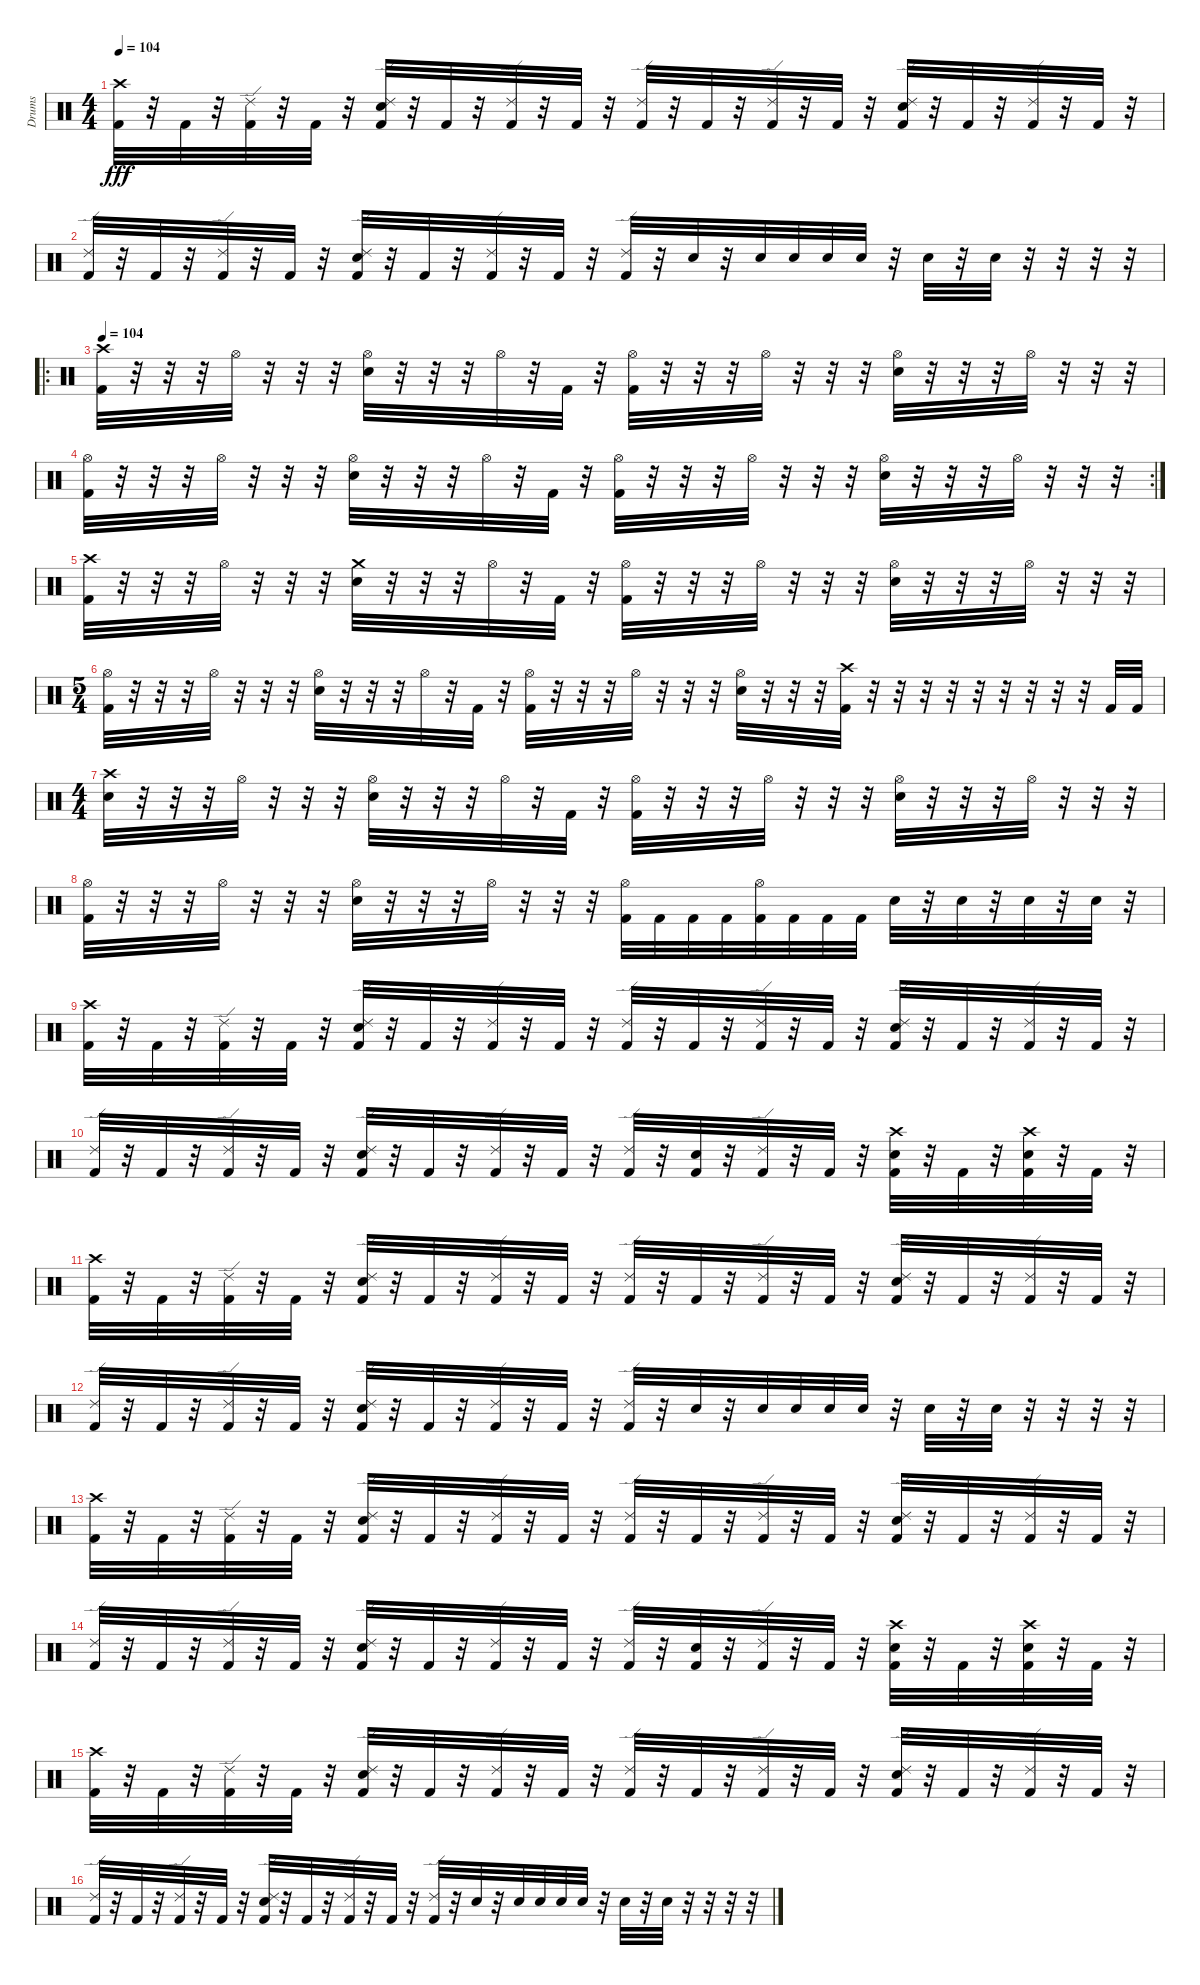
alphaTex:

\track ("Drums" "Drums") {instrument percussion}
\staff {score}
\articulation defaults
\ts (4 4)
\tempo 104
\clef neutral
\ks c
("Crash high (hit)" "Kick (hit) 2").32{dy fff} r.32 "Kick (hit) 2".32 r.32 ("Ride (edge) 2" "Kick (hit) 2").32 r.32 "Kick (hit) 2".32 r.32 ("Ride (edge) 2" "Snare (hit) 2" "Kick (hit) 2").32 r.32 "Kick (hit) 2".32 r.32 ("Ride (edge) 2" "Kick (hit) 2").32 r.32 "Kick (hit) 2".32 r.32 ("Ride (edge) 2" "Kick (hit) 2").32 r.32 "Kick (hit) 2".32 r.32 ("Ride (edge) 2" "Kick (hit) 2").32 r.32 "Kick (hit) 2".32 r.32 ("Ride (edge) 2" "Snare (hit) 2" "Kick (hit) 2").32 r.32 "Kick (hit) 2".32 r.32 ("Ride (edge) 2" "Kick (hit) 2").32 r.32 "Kick (hit) 2".32 r.32 |
("Ride (edge) 2" "Kick (hit) 2").32 r.32 "Kick (hit) 2".32 r.32 ("Ride (edge) 2" "Kick (hit) 2").32 r.32 "Kick (hit) 2".32 r.32 ("Ride (edge) 2" "Snare (hit) 2" "Kick (hit) 2").32 r.32 "Kick (hit) 2".32 r.32 ("Ride (edge) 2" "Kick (hit) 2").32 r.32 "Kick (hit) 2".32 r.32 ("Ride (edge) 2" "Kick (hit) 2").32 r.32 "Snare (hit) 2".32 r.32 "Snare (hit) 2".32 "Snare (hit) 2".32 "Snare (hit) 2".32 "Snare (hit) 2".32 r.32 "Snare (hit) 2".32 r.32 "Snare (hit) 2".32 r.32 r.32 r.32 r.32 |
\ro
\tempo 104
("Crash high (hit)" "Kick (hit) 2").32 r.32 r.32 r.32 "Hi-Hat (open)".32 r.32 r.32 r.32 ("Hi-Hat (open)" "Snare (hit) 2").32 r.32 r.32 r.32 "Hi-Hat (open)".32 r.32 "Kick (hit) 2".32 r.32 ("Hi-Hat (open)" "Kick (hit) 2").32 r.32 r.32 r.32 "Hi-Hat (open)".32 r.32 r.32 r.32 ("Hi-Hat (open)" "Snare (hit) 2").32 r.32 r.32 r.32 "Hi-Hat (open)".32 r.32 r.32 r.32 |
\rc 2
("Hi-Hat (open)" "Kick (hit) 2").32 r.32 r.32 r.32 "Hi-Hat (open)".32 r.32 r.32 r.32 ("Hi-Hat (open)" "Snare (hit) 2").32 r.32 r.32 r.32 "Hi-Hat (open)".32 r.32 "Kick (hit) 2".32 r.32 ("Hi-Hat (open)" "Kick (hit) 2").32 r.32 r.32 r.32 "Hi-Hat (open)".32 r.32 r.32 r.32 ("Hi-Hat (open)" "Snare (hit) 2").32 r.32 r.32 r.32 "Hi-Hat (open)".32 r.32 r.32 r.32 |
("Crash high (hit)" "Kick (hit) 2").32 r.32 r.32 r.32 "Hi-Hat (open)".32 r.32 r.32 r.32 ("Crash medium (hit)" "Snare (hit) 2").32 r.32 r.32 r.32 "Hi-Hat (open)".32 r.32 "Kick (hit) 2".32 r.32 ("Hi-Hat (open)" "Kick (hit) 2").32 r.32 r.32 r.32 "Hi-Hat (open)".32 r.32 r.32 r.32 ("Hi-Hat (open)" "Snare (hit) 2").32 r.32 r.32 r.32 "Hi-Hat (open)".32 r.32 r.32 r.32 |
\ts (5 4)
("Hi-Hat (open)" "Kick (hit) 2").32 r.32 r.32 r.32 "Hi-Hat (open)".32 r.32 r.32 r.32 ("Hi-Hat (open)" "Snare (hit) 2").32 r.32 r.32 r.32 "Hi-Hat (open)".32 r.32 "Kick (hit) 2".32 r.32 ("Hi-Hat (open)" "Kick (hit) 2").32 r.32 r.32 r.32 "Hi-Hat (open)".32 r.32 r.32 r.32 ("Hi-Hat (open)" "Snare (hit) 2").32 r.32 r.32 r.32 ("Crash high (hit)" "Kick (hit) 2").32 r.32 r.32 r.32 r.32 r.32 r.32 r.32 r.32 r.32 "Kick (hit) 2".32 "Kick (hit) 2".32 |
\ts (4 4)
("Crash high (hit)" "Snare (hit) 2").32 r.32 r.32 r.32 "Hi-Hat (open)".32 r.32 r.32 r.32 ("Hi-Hat (open)" "Snare (hit) 2").32 r.32 r.32 r.32 "Hi-Hat (open)".32 r.32 "Kick (hit) 2".32 r.32 ("Hi-Hat (open)" "Kick (hit) 2").32 r.32 r.32 r.32 "Hi-Hat (open)".32 r.32 r.32 r.32 ("Hi-Hat (open)" "Snare (hit) 2").32 r.32 r.32 r.32 "Hi-Hat (open)".32 r.32 r.32 r.32 |
("Hi-Hat (open)" "Kick (hit) 2").32 r.32 r.32 r.32 "Hi-Hat (open)".32 r.32 r.32 r.32 ("Hi-Hat (open)" "Snare (hit) 2").32 r.32 r.32 r.32 "Hi-Hat (open)".32 r.32 r.32 r.32 ("Hi-Hat (open)" "Kick (hit) 2").32 "Kick (hit) 2".32 "Kick (hit) 2".32 "Kick (hit) 2".32 ("Hi-Hat (open)" "Kick (hit) 2").32 "Kick (hit) 2".32 "Kick (hit) 2".32 "Kick (hit) 2".32 "Snare (hit) 2".32 r.32 "Snare (hit) 2".32 r.32 "Snare (hit) 2".32 r.32 "Snare (hit) 2".32 r.32 |
("Crash high (hit)" "Kick (hit) 2").32 r.32 "Kick (hit) 2".32 r.32 ("Ride (edge) 2" "Kick (hit) 2").32 r.32 "Kick (hit) 2".32 r.32 ("Ride (edge) 2" "Snare (hit) 2" "Kick (hit) 2").32 r.32 "Kick (hit) 2".32 r.32 ("Ride (edge) 2" "Kick (hit) 2").32 r.32 "Kick (hit) 2".32 r.32 ("Ride (edge) 2" "Kick (hit) 2").32 r.32 "Kick (hit) 2".32 r.32 ("Ride (edge) 2" "Kick (hit) 2").32 r.32 "Kick (hit) 2".32 r.32 ("Ride (edge) 2" "Snare (hit) 2" "Kick (hit) 2").32 r.32 "Kick (hit) 2".32 r.32 ("Ride (edge) 2" "Kick (hit) 2").32 r.32 "Kick (hit) 2".32 r.32 |
("Ride (edge) 2" "Kick (hit) 2").32 r.32 "Kick (hit) 2".32 r.32 ("Ride (edge) 2" "Kick (hit) 2").32 r.32 "Kick (hit) 2".32 r.32 ("Ride (edge) 2" "Snare (hit) 2" "Kick (hit) 2").32 r.32 "Kick (hit) 2".32 r.32 ("Ride (edge) 2" "Kick (hit) 2").32 r.32 "Kick (hit) 2".32 r.32 ("Ride (edge) 2" "Kick (hit) 2").32 r.32 ("Snare (hit) 2" "Kick (hit) 2").32 r.32 ("Ride (edge) 2" "Kick (hit) 2").32 r.32 "Kick (hit) 2".32 r.32 ("Crash high (hit)" "Snare (hit) 2" "Kick (hit) 2").32 r.32 "Kick (hit) 2".32 r.32 ("Crash high (hit)" "Snare (hit) 2" "Kick (hit) 2").32 r.32 "Kick (hit) 2".32 r.32 |
("Crash high (hit)" "Kick (hit) 2").32 r.32 "Kick (hit) 2".32 r.32 ("Ride (edge) 2" "Kick (hit) 2").32 r.32 "Kick (hit) 2".32 r.32 ("Ride (edge) 2" "Snare (hit) 2" "Kick (hit) 2").32 r.32 "Kick (hit) 2".32 r.32 ("Ride (edge) 2" "Kick (hit) 2").32 r.32 "Kick (hit) 2".32 r.32 ("Ride (edge) 2" "Kick (hit) 2").32 r.32 "Kick (hit) 2".32 r.32 ("Ride (edge) 2" "Kick (hit) 2").32 r.32 "Kick (hit) 2".32 r.32 ("Ride (edge) 2" "Snare (hit) 2" "Kick (hit) 2").32 r.32 "Kick (hit) 2".32 r.32 ("Ride (edge) 2" "Kick (hit) 2").32 r.32 "Kick (hit) 2".32 r.32 |
("Ride (edge) 2" "Kick (hit) 2").32 r.32 "Kick (hit) 2".32 r.32 ("Ride (edge) 2" "Kick (hit) 2").32 r.32 "Kick (hit) 2".32 r.32 ("Ride (edge) 2" "Snare (hit) 2" "Kick (hit) 2").32 r.32 "Kick (hit) 2".32 r.32 ("Ride (edge) 2" "Kick (hit) 2").32 r.32 "Kick (hit) 2".32 r.32 ("Ride (edge) 2" "Kick (hit) 2").32 r.32 "Snare (hit) 2".32 r.32 "Snare (hit) 2".32 "Snare (hit) 2".32 "Snare (hit) 2".32 "Snare (hit) 2".32 r.32 "Snare (hit) 2".32 r.32 "Snare (hit) 2".32 r.32 r.32 r.32 r.32 |
("Crash high (hit)" "Kick (hit) 2").32 r.32 "Kick (hit) 2".32 r.32 ("Ride (edge) 2" "Kick (hit) 2").32 r.32 "Kick (hit) 2".32 r.32 ("Ride (edge) 2" "Snare (hit) 2" "Kick (hit) 2").32 r.32 "Kick (hit) 2".32 r.32 ("Ride (edge) 2" "Kick (hit) 2").32 r.32 "Kick (hit) 2".32 r.32 ("Ride (edge) 2" "Kick (hit) 2").32 r.32 "Kick (hit) 2".32 r.32 ("Ride (edge) 2" "Kick (hit) 2").32 r.32 "Kick (hit) 2".32 r.32 ("Ride (edge) 2" "Snare (hit) 2" "Kick (hit) 2").32 r.32 "Kick (hit) 2".32 r.32 ("Ride (edge) 2" "Kick (hit) 2").32 r.32 "Kick (hit) 2".32 r.32 |
("Ride (edge) 2" "Kick (hit) 2").32 r.32 "Kick (hit) 2".32 r.32 ("Ride (edge) 2" "Kick (hit) 2").32 r.32 "Kick (hit) 2".32 r.32 ("Ride (edge) 2" "Snare (hit) 2" "Kick (hit) 2").32 r.32 "Kick (hit) 2".32 r.32 ("Ride (edge) 2" "Kick (hit) 2").32 r.32 "Kick (hit) 2".32 r.32 ("Ride (edge) 2" "Kick (hit) 2").32 r.32 ("Snare (hit) 2" "Kick (hit) 2").32 r.32 ("Ride (edge) 2" "Kick (hit) 2").32 r.32 "Kick (hit) 2".32 r.32 ("Crash high (hit)" "Snare (hit) 2" "Kick (hit) 2").32 r.32 "Kick (hit) 2".32 r.32 ("Crash high (hit)" "Snare (hit) 2" "Kick (hit) 2").32 r.32 "Kick (hit) 2".32 r.32 |
("Crash high (hit)" "Kick (hit) 2").32 r.32 "Kick (hit) 2".32 r.32 ("Ride (edge) 2" "Kick (hit) 2").32 r.32 "Kick (hit) 2".32 r.32 ("Ride (edge) 2" "Snare (hit) 2" "Kick (hit) 2").32 r.32 "Kick (hit) 2".32 r.32 ("Ride (edge) 2" "Kick (hit) 2").32 r.32 "Kick (hit) 2".32 r.32 ("Ride (edge) 2" "Kick (hit) 2").32 r.32 "Kick (hit) 2".32 r.32 ("Ride (edge) 2" "Kick (hit) 2").32 r.32 "Kick (hit) 2".32 r.32 ("Ride (edge) 2" "Snare (hit) 2" "Kick (hit) 2").32 r.32 "Kick (hit) 2".32 r.32 ("Ride (edge) 2" "Kick (hit) 2").32 r.32 "Kick (hit) 2".32 r.32 |
("Ride (edge) 2" "Kick (hit) 2").32 r.32 "Kick (hit) 2".32 r.32 ("Ride (edge) 2" "Kick (hit) 2").32 r.32 "Kick (hit) 2".32 r.32 ("Ride (edge) 2" "Snare (hit) 2" "Kick (hit) 2").32 r.32 "Kick (hit) 2".32 r.32 ("Ride (edge) 2" "Kick (hit) 2").32 r.32 "Kick (hit) 2".32 r.32 ("Ride (edge) 2" "Kick (hit) 2").32 r.32 "Snare (hit) 2".32 r.32 "Snare (hit) 2".32 "Snare (hit) 2".32 "Snare (hit) 2".32 "Snare (hit) 2".32 r.32 "Snare (hit) 2".32 r.32 "Snare (hit) 2".32 r.32 r.32 r.32 r.32
